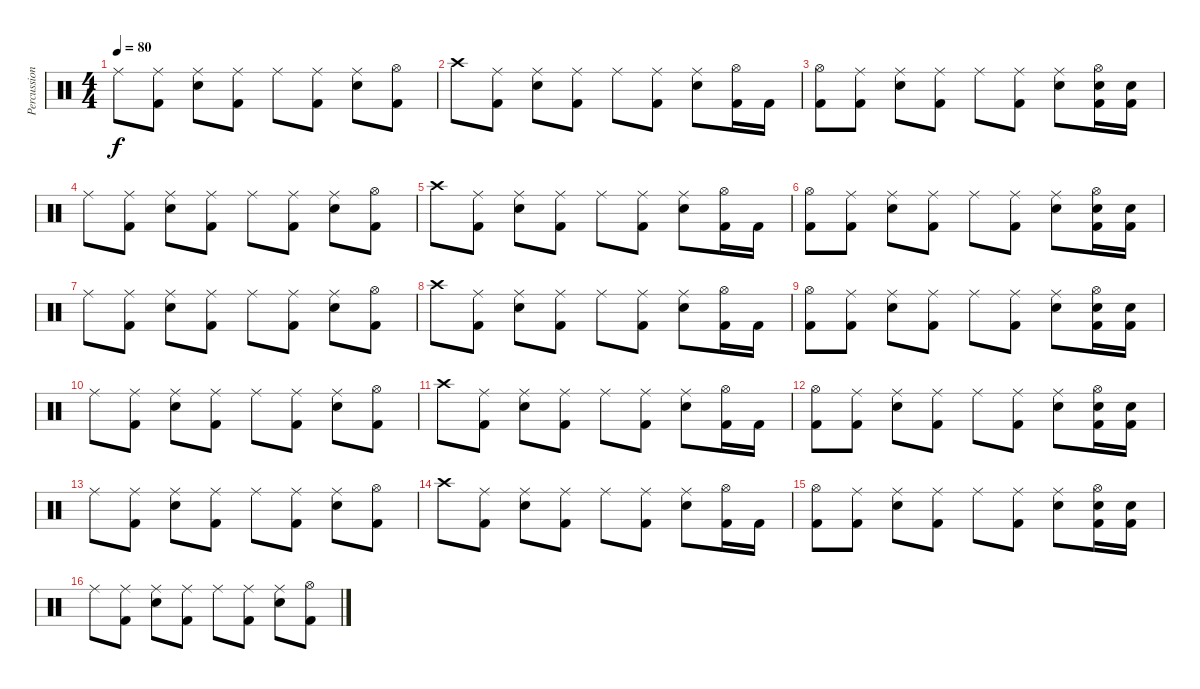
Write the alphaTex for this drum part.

\track ("Percussion" "Percussion") {instrument percussion}
\staff {score}
\articulation defaults
\ts (4 4)
\tempo 80
\clef neutral
\ks c "Ride (middle)".8{dy f}
("Ride (middle)" "Kick (hit) 2").8 ("Ride (middle)" "Electric Snare (hit)").8 ("Ride (middle)" "Kick (hit) 2").8 "Ride (middle)".8 ("Ride (middle)" "Kick (hit) 2").8 ("Ride (middle)" "Electric Snare (hit)").8 ("Hi-Hat (open)" "Kick (hit) 2").8 |
"Crash high (hit)".8 ("Ride (middle)" "Kick (hit) 2").8 ("Ride (middle)" "Electric Snare (hit)").8 ("Ride (middle)" "Kick (hit) 2").8 "Ride (middle)".8 ("Ride (middle)" "Kick (hit) 2").8 ("Ride (middle)" "Electric Snare (hit)").8 ("Hi-Hat (open)" "Kick (hit) 2").16 "Kick (hit) 2".16 |
("Hi-Hat (open)" "Kick (hit) 2").8 ("Ride (middle)" "Kick (hit) 2").8 ("Ride (middle)" "Electric Snare (hit)").8 ("Ride (middle)" "Kick (hit) 2").8 "Ride (middle)".8 ("Ride (middle)" "Kick (hit) 2").8 ("Ride (middle)" "Electric Snare (hit)").8 ("Hi-Hat (open)" "Electric Snare (hit)" "Kick (hit) 2").16 ("Electric Snare (hit)" "Kick (hit) 2").16 |
"Ride (middle)".8 ("Ride (middle)" "Kick (hit) 2").8 ("Ride (middle)" "Electric Snare (hit)").8 ("Ride (middle)" "Kick (hit) 2").8 "Ride (middle)".8 ("Ride (middle)" "Kick (hit) 2").8 ("Ride (middle)" "Electric Snare (hit)").8 ("Hi-Hat (open)" "Kick (hit) 2").8 |
"Crash high (hit)".8 ("Ride (middle)" "Kick (hit) 2").8 ("Ride (middle)" "Electric Snare (hit)").8 ("Ride (middle)" "Kick (hit) 2").8 "Ride (middle)".8 ("Ride (middle)" "Kick (hit) 2").8 ("Ride (middle)" "Electric Snare (hit)").8 ("Hi-Hat (open)" "Kick (hit) 2").16 "Kick (hit) 2".16 |
("Hi-Hat (open)" "Kick (hit) 2").8 ("Ride (middle)" "Kick (hit) 2").8 ("Ride (middle)" "Electric Snare (hit)").8 ("Ride (middle)" "Kick (hit) 2").8 "Ride (middle)".8 ("Ride (middle)" "Kick (hit) 2").8 ("Ride (middle)" "Electric Snare (hit)").8 ("Hi-Hat (open)" "Electric Snare (hit)" "Kick (hit) 2").16 ("Electric Snare (hit)" "Kick (hit) 2").16 |
"Ride (middle)".8 ("Ride (middle)" "Kick (hit) 2").8 ("Ride (middle)" "Electric Snare (hit)").8 ("Ride (middle)" "Kick (hit) 2").8 "Ride (middle)".8 ("Ride (middle)" "Kick (hit) 2").8 ("Ride (middle)" "Electric Snare (hit)").8 ("Hi-Hat (open)" "Kick (hit) 2").8 |
"Crash high (hit)".8 ("Ride (middle)" "Kick (hit) 2").8 ("Ride (middle)" "Electric Snare (hit)").8 ("Ride (middle)" "Kick (hit) 2").8 "Ride (middle)".8 ("Ride (middle)" "Kick (hit) 2").8 ("Ride (middle)" "Electric Snare (hit)").8 ("Hi-Hat (open)" "Kick (hit) 2").16 "Kick (hit) 2".16 |
("Hi-Hat (open)" "Kick (hit) 2").8 ("Ride (middle)" "Kick (hit) 2").8 ("Ride (middle)" "Electric Snare (hit)").8 ("Ride (middle)" "Kick (hit) 2").8 "Ride (middle)".8 ("Ride (middle)" "Kick (hit) 2").8 ("Ride (middle)" "Electric Snare (hit)").8 ("Hi-Hat (open)" "Electric Snare (hit)" "Kick (hit) 2").16 ("Electric Snare (hit)" "Kick (hit) 2").16 |
"Ride (middle)".8 ("Ride (middle)" "Kick (hit) 2").8 ("Ride (middle)" "Electric Snare (hit)").8 ("Ride (middle)" "Kick (hit) 2").8 "Ride (middle)".8 ("Ride (middle)" "Kick (hit) 2").8 ("Ride (middle)" "Electric Snare (hit)").8 ("Hi-Hat (open)" "Kick (hit) 2").8 |
"Crash high (hit)".8 ("Ride (middle)" "Kick (hit) 2").8 ("Ride (middle)" "Electric Snare (hit)").8 ("Ride (middle)" "Kick (hit) 2").8 "Ride (middle)".8 ("Ride (middle)" "Kick (hit) 2").8 ("Ride (middle)" "Electric Snare (hit)").8 ("Hi-Hat (open)" "Kick (hit) 2").16 "Kick (hit) 2".16 |
("Hi-Hat (open)" "Kick (hit) 2").8 ("Ride (middle)" "Kick (hit) 2").8 ("Ride (middle)" "Electric Snare (hit)").8 ("Ride (middle)" "Kick (hit) 2").8 "Ride (middle)".8 ("Ride (middle)" "Kick (hit) 2").8 ("Ride (middle)" "Electric Snare (hit)").8 ("Hi-Hat (open)" "Electric Snare (hit)" "Kick (hit) 2").16 ("Electric Snare (hit)" "Kick (hit) 2").16 |
"Ride (middle)".8 ("Ride (middle)" "Kick (hit) 2").8 ("Ride (middle)" "Electric Snare (hit)").8 ("Ride (middle)" "Kick (hit) 2").8 "Ride (middle)".8 ("Ride (middle)" "Kick (hit) 2").8 ("Ride (middle)" "Electric Snare (hit)").8 ("Hi-Hat (open)" "Kick (hit) 2").8 |
"Crash high (hit)".8 ("Ride (middle)" "Kick (hit) 2").8 ("Ride (middle)" "Electric Snare (hit)").8 ("Ride (middle)" "Kick (hit) 2").8 "Ride (middle)".8 ("Ride (middle)" "Kick (hit) 2").8 ("Ride (middle)" "Electric Snare (hit)").8 ("Hi-Hat (open)" "Kick (hit) 2").16 "Kick (hit) 2".16 |
("Hi-Hat (open)" "Kick (hit) 2").8 ("Ride (middle)" "Kick (hit) 2").8 ("Ride (middle)" "Electric Snare (hit)").8 ("Ride (middle)" "Kick (hit) 2").8 "Ride (middle)".8 ("Ride (middle)" "Kick (hit) 2").8 ("Ride (middle)" "Electric Snare (hit)").8 ("Hi-Hat (open)" "Electric Snare (hit)" "Kick (hit) 2").16 ("Electric Snare (hit)" "Kick (hit) 2").16 |
"Ride (middle)".8 ("Ride (middle)" "Kick (hit) 2").8 ("Ride (middle)" "Electric Snare (hit)").8 ("Ride (middle)" "Kick (hit) 2").8 "Ride (middle)".8 ("Ride (middle)" "Kick (hit) 2").8 ("Ride (middle)" "Electric Snare (hit)").8 ("Hi-Hat (open)" "Kick (hit) 2").8
